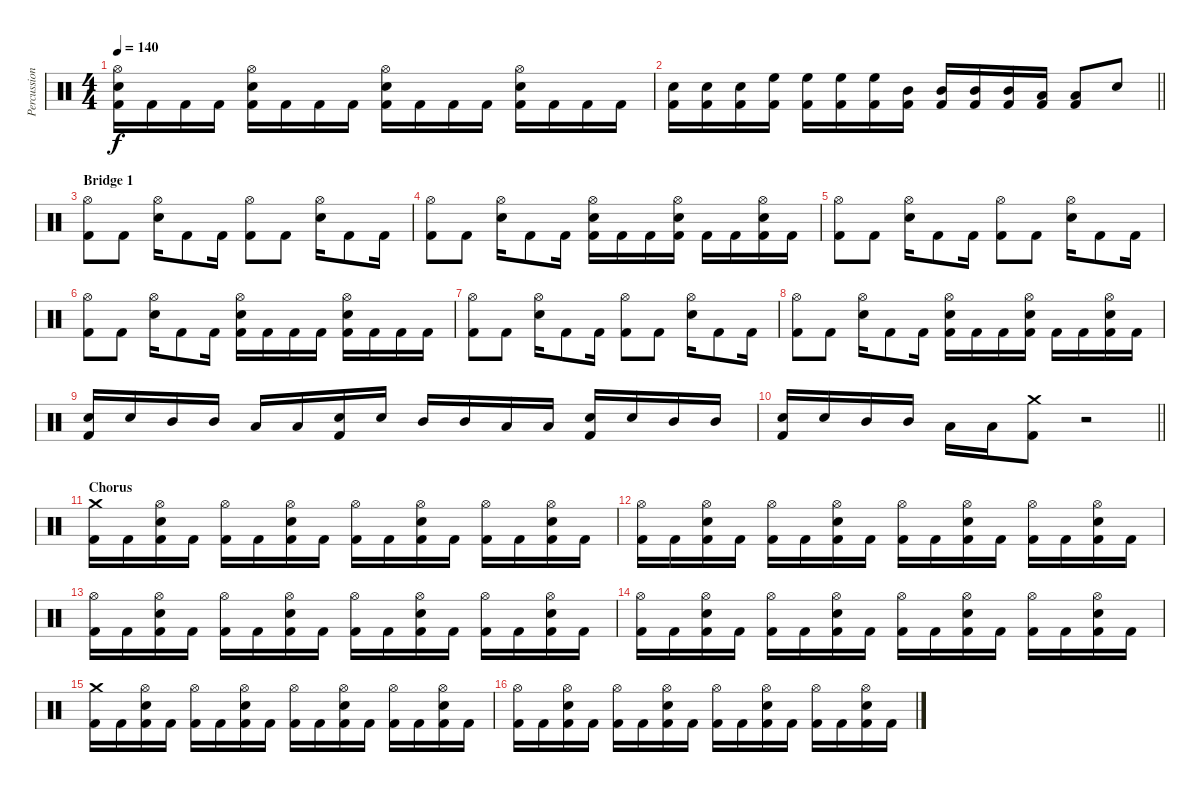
\track ("Percussion" "Percussion") {instrument percussion}
\staff {score}
\articulation defaults
\ts (4 4)
\tempo 140
\clef neutral
\ks c
("Kick (hit) 2" "Electric Snare (hit)" "Hi-Hat (open)").16{dy f} "Kick (hit) 2".16 "Kick (hit) 2".16 "Kick (hit) 2".16 ("Kick (hit) 2" "Electric Snare (hit)" "Hi-Hat (open)").16 "Kick (hit) 2".16 "Kick (hit) 2".16 "Kick (hit) 2".16 ("Kick (hit) 2" "Electric Snare (hit)" "Hi-Hat (open)").16 "Kick (hit) 2".16 "Kick (hit) 2".16 "Kick (hit) 2".16 ("Kick (hit) 2" "Electric Snare (hit)" "Hi-Hat (open)").16 "Kick (hit) 2".16 "Kick (hit) 2".16 "Kick (hit) 2".16 |
\barLineRight lightlight
("Kick (hit) 2" "Electric Snare (hit)").16 ("Kick (hit) 2" "Electric Snare (hit)").16 ("Kick (hit) 2" "Electric Snare (hit)").16 ("Kick (hit) 2" "High Floor Tom (hit)").16 ("Kick (hit) 2" "High Floor Tom (hit)").16 ("Kick (hit) 2" "High Floor Tom (hit)").16 ("Kick (hit) 2" "High Floor Tom (hit)").16 ("Kick (hit) 2" "Mid Tom (hit)").16 ("Kick (hit) 2" "Mid Tom (hit)").16 ("Kick (hit) 2" "Mid Tom (hit)").16 ("Kick (hit) 2" "Mid Tom (hit)").16 ("Kick (hit) 2" "Low Floor Tom (hit)").16 ("Kick (hit) 2" "Low Floor Tom (hit)").8 "Electric Snare (hit)".8 |
\section ("" "Bridge 1")
("Kick (hit) 2" "Hi-Hat (open)").8 "Kick (hit) 2".8 ("Electric Snare (hit)" "Hi-Hat (open)").16 "Kick (hit) 2".8 "Kick (hit) 2".16 ("Kick (hit) 2" "Hi-Hat (open)").8 "Kick (hit) 2".8 ("Electric Snare (hit)" "Hi-Hat (open)").16 "Kick (hit) 2".8 "Kick (hit) 2".16 |
("Kick (hit) 2" "Hi-Hat (open)").8 "Kick (hit) 2".8 ("Electric Snare (hit)" "Hi-Hat (open)").16 "Kick (hit) 2".8 "Kick (hit) 2".16 ("Kick (hit) 2" "Electric Snare (hit)" "Hi-Hat (open)").16 "Kick (hit) 2".16 "Kick (hit) 2".16 ("Kick (hit) 2" "Electric Snare (hit)" "Hi-Hat (open)").16 "Kick (hit) 2".16 "Kick (hit) 2".16 ("Kick (hit) 2" "Electric Snare (hit)" "Hi-Hat (open)").16 "Kick (hit) 2".16 |
("Kick (hit) 2" "Hi-Hat (open)").8 "Kick (hit) 2".8 ("Electric Snare (hit)" "Hi-Hat (open)").16 "Kick (hit) 2".8 "Kick (hit) 2".16 ("Kick (hit) 2" "Hi-Hat (open)").8 "Kick (hit) 2".8 ("Electric Snare (hit)" "Hi-Hat (open)").16 "Kick (hit) 2".8 "Kick (hit) 2".16 |
("Kick (hit) 2" "Hi-Hat (open)").8 "Kick (hit) 2".8 ("Electric Snare (hit)" "Hi-Hat (open)").16 "Kick (hit) 2".8 "Kick (hit) 2".16 ("Kick (hit) 2" "Electric Snare (hit)" "Hi-Hat (open)").16 "Kick (hit) 2".16 "Kick (hit) 2".16 "Kick (hit) 2".16 ("Kick (hit) 2" "Electric Snare (hit)" "Hi-Hat (open)").16 "Kick (hit) 2".16 "Kick (hit) 2".16 "Kick (hit) 2".16 |
("Kick (hit) 2" "Hi-Hat (open)").8 "Kick (hit) 2".8 ("Electric Snare (hit)" "Hi-Hat (open)").16 "Kick (hit) 2".8 "Kick (hit) 2".16 ("Kick (hit) 2" "Hi-Hat (open)").8 "Kick (hit) 2".8 ("Electric Snare (hit)" "Hi-Hat (open)").16 "Kick (hit) 2".8 "Kick (hit) 2".16 |
("Kick (hit) 2" "Hi-Hat (open)").8 "Kick (hit) 2".8 ("Electric Snare (hit)" "Hi-Hat (open)").16 "Kick (hit) 2".8 "Kick (hit) 2".16 ("Kick (hit) 2" "Electric Snare (hit)" "Hi-Hat (open)").16 "Kick (hit) 2".16 "Kick (hit) 2".16 ("Kick (hit) 2" "Electric Snare (hit)" "Hi-Hat (open)").16 "Kick (hit) 2".16 "Kick (hit) 2".16 ("Kick (hit) 2" "Electric Snare (hit)" "Hi-Hat (open)").16 "Kick (hit) 2".16 |
("Kick (hit) 2" "Electric Snare (hit)").16 "Electric Snare (hit)".16 "Mid Tom (hit)".16 "Mid Tom (hit)".16 "Low Floor Tom (hit)".16 "Low Floor Tom (hit)".16 ("Kick (hit) 2" "Electric Snare (hit)").16 "Electric Snare (hit)".16 "Mid Tom (hit)".16 "Mid Tom (hit)".16 "Low Floor Tom (hit)".16 "Low Floor Tom (hit)".16 ("Kick (hit) 2" "Electric Snare (hit)").16 "Electric Snare (hit)".16 "Mid Tom (hit)".16 "Mid Tom (hit)".16 |
\barLineRight lightlight
("Kick (hit) 2" "Electric Snare (hit)").16 "Electric Snare (hit)".16 "Mid Tom (hit)".16 "Mid Tom (hit)".16 "Low Floor Tom (hit)".16 "Low Floor Tom (hit)".16 ("Kick (hit) 2" "Crash medium (hit)").8 r.2 |
\section ("" "Chorus")
("Kick (hit) 2" "Crash medium (hit)").16 "Kick (hit) 2".16 ("Kick (hit) 2" "Electric Snare (hit)" "Hi-Hat (open)").16 "Kick (hit) 2".16 ("Kick (hit) 2" "Hi-Hat (open)").16 "Kick (hit) 2".16 ("Kick (hit) 2" "Electric Snare (hit)" "Hi-Hat (open)").16 "Kick (hit) 2".16 ("Kick (hit) 2" "Hi-Hat (open)").16 "Kick (hit) 2".16 ("Kick (hit) 2" "Electric Snare (hit)" "Hi-Hat (open)").16 "Kick (hit) 2".16 ("Kick (hit) 2" "Hi-Hat (open)").16 "Kick (hit) 2".16 ("Kick (hit) 2" "Electric Snare (hit)" "Hi-Hat (open)").16 "Kick (hit) 2".16 |
("Kick (hit) 2" "Hi-Hat (open)").16 "Kick (hit) 2".16 ("Kick (hit) 2" "Electric Snare (hit)" "Hi-Hat (open)").16 "Kick (hit) 2".16 ("Kick (hit) 2" "Hi-Hat (open)").16 "Kick (hit) 2".16 ("Kick (hit) 2" "Electric Snare (hit)" "Hi-Hat (open)").16 "Kick (hit) 2".16 ("Kick (hit) 2" "Hi-Hat (open)").16 "Kick (hit) 2".16 ("Kick (hit) 2" "Electric Snare (hit)" "Hi-Hat (open)").16 "Kick (hit) 2".16 ("Kick (hit) 2" "Hi-Hat (open)").16 "Kick (hit) 2".16 ("Kick (hit) 2" "Electric Snare (hit)" "Hi-Hat (open)").16 "Kick (hit) 2".16 |
("Kick (hit) 2" "Hi-Hat (open)").16 "Kick (hit) 2".16 ("Kick (hit) 2" "Electric Snare (hit)" "Hi-Hat (open)").16 "Kick (hit) 2".16 ("Kick (hit) 2" "Hi-Hat (open)").16 "Kick (hit) 2".16 ("Kick (hit) 2" "Electric Snare (hit)" "Hi-Hat (open)").16 "Kick (hit) 2".16 ("Kick (hit) 2" "Hi-Hat (open)").16 "Kick (hit) 2".16 ("Kick (hit) 2" "Electric Snare (hit)" "Hi-Hat (open)").16 "Kick (hit) 2".16 ("Kick (hit) 2" "Hi-Hat (open)").16 "Kick (hit) 2".16 ("Kick (hit) 2" "Electric Snare (hit)" "Hi-Hat (open)").16 "Kick (hit) 2".16 |
("Kick (hit) 2" "Hi-Hat (open)").16 "Kick (hit) 2".16 ("Kick (hit) 2" "Electric Snare (hit)" "Hi-Hat (open)").16 "Kick (hit) 2".16 ("Kick (hit) 2" "Hi-Hat (open)").16 "Kick (hit) 2".16 ("Kick (hit) 2" "Electric Snare (hit)" "Hi-Hat (open)").16 "Kick (hit) 2".16 ("Kick (hit) 2" "Hi-Hat (open)").16 "Kick (hit) 2".16 ("Kick (hit) 2" "Electric Snare (hit)" "Hi-Hat (open)").16 "Kick (hit) 2".16 ("Kick (hit) 2" "Hi-Hat (open)").16 "Kick (hit) 2".16 ("Kick (hit) 2" "Electric Snare (hit)" "Hi-Hat (open)").16 "Kick (hit) 2".16 |
("Kick (hit) 2" "Crash medium (hit)").16 "Kick (hit) 2".16 ("Kick (hit) 2" "Electric Snare (hit)" "Hi-Hat (open)").16 "Kick (hit) 2".16 ("Kick (hit) 2" "Hi-Hat (open)").16 "Kick (hit) 2".16 ("Kick (hit) 2" "Electric Snare (hit)" "Hi-Hat (open)").16 "Kick (hit) 2".16 ("Kick (hit) 2" "Hi-Hat (open)").16 "Kick (hit) 2".16 ("Kick (hit) 2" "Electric Snare (hit)" "Hi-Hat (open)").16 "Kick (hit) 2".16 ("Kick (hit) 2" "Hi-Hat (open)").16 "Kick (hit) 2".16 ("Kick (hit) 2" "Electric Snare (hit)" "Hi-Hat (open)").16 "Kick (hit) 2".16 |
("Kick (hit) 2" "Hi-Hat (open)").16 "Kick (hit) 2".16 ("Kick (hit) 2" "Electric Snare (hit)" "Hi-Hat (open)").16 "Kick (hit) 2".16 ("Kick (hit) 2" "Hi-Hat (open)").16 "Kick (hit) 2".16 ("Kick (hit) 2" "Electric Snare (hit)" "Hi-Hat (open)").16 "Kick (hit) 2".16 ("Kick (hit) 2" "Hi-Hat (open)").16 "Kick (hit) 2".16 ("Kick (hit) 2" "Electric Snare (hit)" "Hi-Hat (open)").16 "Kick (hit) 2".16 ("Kick (hit) 2" "Hi-Hat (open)").16 "Kick (hit) 2".16 ("Kick (hit) 2" "Electric Snare (hit)" "Hi-Hat (open)").16 "Kick (hit) 2".16
